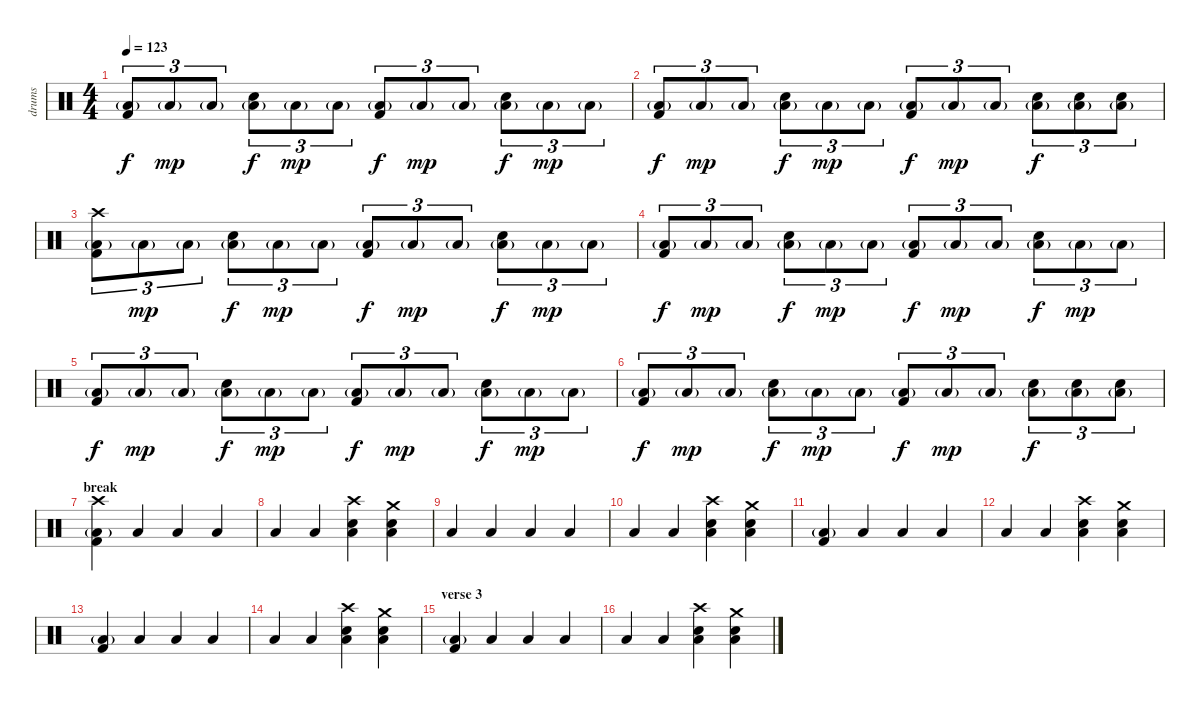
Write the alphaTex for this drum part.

\track ("drums" "drums") {instrument percussion}
\staff {score}
\articulation defaults
\ts (4 4)
\tempo 123
\clef neutral
\ks c
("Low Floor Tom (hit)"{g} "Kick (hit) 2").8{tu (3 2) txt "" dy f} "Low Floor Tom (hit)"{g}.8{tu (3 2) txt "" dy mp} "Low Floor Tom (hit)"{g}.8{tu (3 2) txt ""} ("Low Floor Tom (hit)"{g} "Electric Snare (hit)").8{tu (3 2) txt "" dy f} "Low Floor Tom (hit)"{g}.8{tu (3 2) txt "" dy mp} "Low Floor Tom (hit)"{g}.8{tu (3 2) txt ""} ("Low Floor Tom (hit)"{g} "Kick (hit) 2").8{tu (3 2) txt "" dy f} "Low Floor Tom (hit)"{g}.8{tu (3 2) txt "" dy mp} "Low Floor Tom (hit)"{g}.8{tu (3 2) txt ""} ("Low Floor Tom (hit)"{g} "Electric Snare (hit)").8{tu (3 2) txt "" dy f} "Low Floor Tom (hit)"{g}.8{tu (3 2) txt "" dy mp} "Low Floor Tom (hit)"{g}.8{tu (3 2) txt ""} |
("Low Floor Tom (hit)"{g} "Kick (hit) 2").8{tu (3 2) txt "" dy f} "Low Floor Tom (hit)"{g}.8{tu (3 2) txt "" dy mp} "Low Floor Tom (hit)"{g}.8{tu (3 2) txt ""} ("Low Floor Tom (hit)"{g} "Electric Snare (hit)").8{tu (3 2) txt "" dy f} "Low Floor Tom (hit)"{g}.8{tu (3 2) txt "" dy mp} "Low Floor Tom (hit)"{g}.8{tu (3 2) txt ""} ("Low Floor Tom (hit)"{g} "Kick (hit) 2").8{tu (3 2) txt "" dy f} "Low Floor Tom (hit)"{g}.8{tu (3 2) txt "" dy mp} "Low Floor Tom (hit)"{g}.8{tu (3 2) txt ""} ("Low Floor Tom (hit)"{g} "Electric Snare (hit)").8{tu (3 2) txt "" dy f} ("Low Floor Tom (hit)"{g} "Electric Snare (hit)").8{tu (3 2) txt ""} ("Low Floor Tom (hit)"{g} "Electric Snare (hit)").8{tu (3 2) txt ""} |
("Low Floor Tom (hit)"{g} "Kick (hit) 2" "Crash high (hit)").8{tu (3 2) txt ""} "Low Floor Tom (hit)"{g}.8{tu (3 2) txt "" dy mp} "Low Floor Tom (hit)"{g}.8{tu (3 2) txt ""} ("Low Floor Tom (hit)"{g} "Electric Snare (hit)").8{tu (3 2) txt "" dy f} "Low Floor Tom (hit)"{g}.8{tu (3 2) txt "" dy mp} "Low Floor Tom (hit)"{g}.8{tu (3 2) txt ""} ("Low Floor Tom (hit)"{g} "Kick (hit) 2").8{tu (3 2) txt "" dy f} "Low Floor Tom (hit)"{g}.8{tu (3 2) txt "" dy mp} "Low Floor Tom (hit)"{g}.8{tu (3 2) txt ""} ("Low Floor Tom (hit)"{g} "Electric Snare (hit)").8{tu (3 2) txt "" dy f} "Low Floor Tom (hit)"{g}.8{tu (3 2) txt "" dy mp} "Low Floor Tom (hit)"{g}.8{tu (3 2) txt ""} |
("Low Floor Tom (hit)"{g} "Kick (hit) 2").8{tu (3 2) txt "" dy f} "Low Floor Tom (hit)"{g}.8{tu (3 2) txt "" dy mp} "Low Floor Tom (hit)"{g}.8{tu (3 2) txt ""} ("Low Floor Tom (hit)"{g} "Electric Snare (hit)").8{tu (3 2) txt "" dy f} "Low Floor Tom (hit)"{g}.8{tu (3 2) txt "" dy mp} "Low Floor Tom (hit)"{g}.8{tu (3 2) txt ""} ("Low Floor Tom (hit)"{g} "Kick (hit) 2").8{tu (3 2) txt "" dy f} "Low Floor Tom (hit)"{g}.8{tu (3 2) txt "" dy mp} "Low Floor Tom (hit)"{g}.8{tu (3 2) txt ""} ("Low Floor Tom (hit)"{g} "Electric Snare (hit)").8{tu (3 2) txt "" dy f} "Low Floor Tom (hit)"{g}.8{tu (3 2) txt "" dy mp} "Low Floor Tom (hit)"{g}.8{tu (3 2) txt ""} |
("Low Floor Tom (hit)"{g} "Kick (hit) 2").8{tu (3 2) txt "" dy f} "Low Floor Tom (hit)"{g}.8{tu (3 2) txt "" dy mp} "Low Floor Tom (hit)"{g}.8{tu (3 2) txt ""} ("Low Floor Tom (hit)"{g} "Electric Snare (hit)").8{tu (3 2) txt "" dy f} "Low Floor Tom (hit)"{g}.8{tu (3 2) txt "" dy mp} "Low Floor Tom (hit)"{g}.8{tu (3 2) txt ""} ("Low Floor Tom (hit)"{g} "Kick (hit) 2").8{tu (3 2) txt "" dy f} "Low Floor Tom (hit)"{g}.8{tu (3 2) txt "" dy mp} "Low Floor Tom (hit)"{g}.8{tu (3 2) txt ""} ("Low Floor Tom (hit)"{g} "Electric Snare (hit)").8{tu (3 2) txt "" dy f} "Low Floor Tom (hit)"{g}.8{tu (3 2) txt "" dy mp} "Low Floor Tom (hit)"{g}.8{tu (3 2) txt ""} |
("Low Floor Tom (hit)"{g} "Kick (hit) 2").8{tu (3 2) txt "" dy f} "Low Floor Tom (hit)"{g}.8{tu (3 2) txt "" dy mp} "Low Floor Tom (hit)"{g}.8{tu (3 2) txt ""} ("Low Floor Tom (hit)"{g} "Electric Snare (hit)").8{tu (3 2) txt "" dy f} "Low Floor Tom (hit)"{g}.8{tu (3 2) txt "" dy mp} "Low Floor Tom (hit)"{g}.8{tu (3 2) txt ""} ("Low Floor Tom (hit)"{g} "Kick (hit) 2").8{tu (3 2) txt "" dy f} "Low Floor Tom (hit)"{g}.8{tu (3 2) txt "" dy mp} "Low Floor Tom (hit)"{g}.8{tu (3 2) txt ""} ("Low Floor Tom (hit)"{g} "Electric Snare (hit)").8{tu (3 2) txt "" dy f} ("Low Floor Tom (hit)"{g} "Electric Snare (hit)").8{tu (3 2) txt ""} ("Low Floor Tom (hit)"{g} "Electric Snare (hit)").8{tu (3 2) txt ""} |
\section ("" "break")
("Low Floor Tom (hit)"{g} "Kick (hit) 2" "Crash high (hit)").4{txt ""} "Low Floor Tom (hit)".4{txt ""} "Low Floor Tom (hit)".4{txt ""} "Low Floor Tom (hit)".4{txt ""} |
"Low Floor Tom (hit)".4{txt ""} "Low Floor Tom (hit)".4{txt ""} ("Low Floor Tom (hit)" "Electric Snare (hit)" "Crash high (hit)").4{txt ""} ("Low Floor Tom (hit)" "Electric Snare (hit)" "Crash medium (hit)").4{txt ""} |
"Low Floor Tom (hit)".4{txt ""} "Low Floor Tom (hit)".4{txt ""} "Low Floor Tom (hit)".4{txt ""} "Low Floor Tom (hit)".4{txt ""} |
"Low Floor Tom (hit)".4{txt ""} "Low Floor Tom (hit)".4{txt ""} ("Low Floor Tom (hit)" "Electric Snare (hit)" "Crash high (hit)").4{txt ""} ("Low Floor Tom (hit)" "Electric Snare (hit)" "Crash medium (hit)").4{txt ""} |
("Low Floor Tom (hit)"{g} "Kick (hit) 2").4{txt ""} "Low Floor Tom (hit)".4{txt ""} "Low Floor Tom (hit)".4{txt ""} "Low Floor Tom (hit)".4{txt ""} |
"Low Floor Tom (hit)".4{txt ""} "Low Floor Tom (hit)".4{txt ""} ("Low Floor Tom (hit)" "Electric Snare (hit)" "Crash high (hit)").4{txt ""} ("Low Floor Tom (hit)" "Electric Snare (hit)" "Crash medium (hit)").4{txt ""} |
("Low Floor Tom (hit)"{g} "Kick (hit) 2").4{txt ""} "Low Floor Tom (hit)".4{txt ""} "Low Floor Tom (hit)".4{txt ""} "Low Floor Tom (hit)".4{txt ""} |
"Low Floor Tom (hit)".4{txt ""} "Low Floor Tom (hit)".4{txt ""} ("Low Floor Tom (hit)" "Electric Snare (hit)" "Crash high (hit)").4{txt ""} ("Low Floor Tom (hit)" "Electric Snare (hit)" "Crash medium (hit)").4{txt ""} |
\section ("" "verse 3")
("Low Floor Tom (hit)"{g} "Kick (hit) 2").4{txt ""} "Low Floor Tom (hit)".4{txt ""} "Low Floor Tom (hit)".4{txt ""} "Low Floor Tom (hit)".4{txt ""} |
"Low Floor Tom (hit)".4{txt ""} "Low Floor Tom (hit)".4{txt ""} ("Low Floor Tom (hit)" "Electric Snare (hit)" "Crash high (hit)").4{txt ""} ("Low Floor Tom (hit)" "Electric Snare (hit)" "Crash medium (hit)").4{txt ""}
